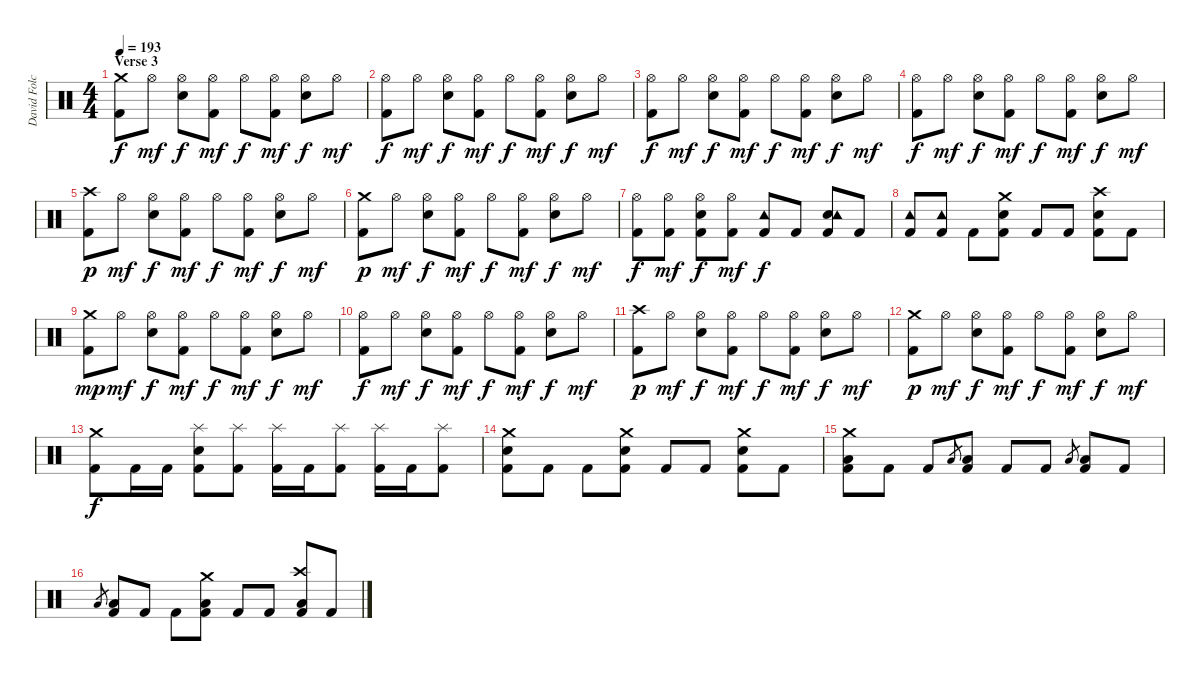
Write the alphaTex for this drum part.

\track ("David Folchitto" "David Folc") {instrument percussion}
\staff {score}
\articulation defaults
\ts (4 4)
\section ("" "Verse 3")
\tempo 193
\clef neutral
\ks c
("Crash medium (hit)" "Kick (hit) 2").8{dy f} "Hi-Hat (open)".8{dy mf} ("Hi-Hat (open)" "Snare (hit) 2").8{dy f} ("Hi-Hat (open)" "Kick (hit) 2").8{dy mf} "Hi-Hat (open)".8{dy f} ("Hi-Hat (open)" "Kick (hit) 2").8{dy mf} ("Hi-Hat (open)" "Snare (hit) 2").8{dy f} "Hi-Hat (open)".8{dy mf} |
("Hi-Hat (open)" "Kick (hit) 2").8{dy f} "Hi-Hat (open)".8{dy mf} ("Hi-Hat (open)" "Snare (hit) 2").8{dy f} ("Hi-Hat (open)" "Kick (hit) 2").8{dy mf} "Hi-Hat (open)".8{dy f} ("Hi-Hat (open)" "Kick (hit) 2").8{dy mf} ("Hi-Hat (open)" "Snare (hit) 2").8{dy f} "Hi-Hat (open)".8{dy mf} |
("Hi-Hat (open)" "Kick (hit) 2").8{dy f} "Hi-Hat (open)".8{dy mf} ("Hi-Hat (open)" "Snare (hit) 2").8{dy f} ("Hi-Hat (open)" "Kick (hit) 2").8{dy mf} "Hi-Hat (open)".8{dy f} ("Hi-Hat (open)" "Kick (hit) 2").8{dy mf} ("Hi-Hat (open)" "Snare (hit) 2").8{dy f} "Hi-Hat (open)".8{dy mf} |
("Hi-Hat (open)" "Kick (hit) 2").8{dy f} "Hi-Hat (open)".8{dy mf} ("Hi-Hat (open)" "Snare (hit) 2").8{dy f} ("Hi-Hat (open)" "Kick (hit) 2").8{dy mf} "Hi-Hat (open)".8{dy f} ("Hi-Hat (open)" "Kick (hit) 2").8{dy mf} ("Hi-Hat (open)" "Snare (hit) 2").8{dy f} "Hi-Hat (open)".8{dy mf} |
("Crash high (hit)" "Kick (hit) 2").8{dy p} "Hi-Hat (open)".8{dy mf} ("Hi-Hat (open)" "Snare (hit) 2").8{dy f} ("Hi-Hat (open)" "Kick (hit) 2").8{dy mf} "Hi-Hat (open)".8{dy f} ("Hi-Hat (open)" "Kick (hit) 2").8{dy mf} ("Hi-Hat (open)" "Snare (hit) 2").8{dy f} "Hi-Hat (open)".8{dy mf} |
("Crash medium (hit)" "Kick (hit) 2").8{dy p} "Hi-Hat (open)".8{dy mf} ("Hi-Hat (open)" "Snare (hit) 2").8{dy f} ("Hi-Hat (open)" "Kick (hit) 2").8{dy mf} "Hi-Hat (open)".8{dy f} ("Hi-Hat (open)" "Kick (hit) 2").8{dy mf} ("Hi-Hat (open)" "Snare (hit) 2").8{dy f} "Hi-Hat (open)".8{dy mf} |
("Hi-Hat (open)" "Kick (hit) 2").8{dy f} ("Hi-Hat (open)" "Kick (hit) 2").8{dy mf} ("Hi-Hat (open)" "Snare (hit) 2" "Kick (hit) 2").8{dy f} ("Hi-Hat (open)" "Kick (hit) 2").8{dy mf} ("Tambourine (hit)" "Kick (hit) 2").8{dy f} "Kick (hit) 2".8 ("Snare (hit) 2" "Tambourine (hit)" "Kick (hit) 2").8 "Kick (hit) 2".8 |
("Tambourine (hit)" "Kick (hit) 2").8 ("Tambourine (hit)" "Kick (hit) 2").8 "Kick (hit) 2".8 ("Crash medium (hit)" "Snare (hit) 2" "Kick (hit) 2").8 "Kick (hit) 2".8 "Kick (hit) 2".8 ("Crash high (hit)" "Snare (hit) 2" "Kick (hit) 2").8 "Kick (hit) 2".8 |
("Crash medium (hit)" "Kick (hit) 2").8{dy mp} "Hi-Hat (open)".8{dy mf} ("Hi-Hat (open)" "Snare (hit) 2").8{dy f} ("Hi-Hat (open)" "Kick (hit) 2").8{dy mf} "Hi-Hat (open)".8{dy f} ("Hi-Hat (open)" "Kick (hit) 2").8{dy mf} ("Hi-Hat (open)" "Snare (hit) 2").8{dy f} "Hi-Hat (open)".8{dy mf} |
("Hi-Hat (open)" "Kick (hit) 2").8{dy f} "Hi-Hat (open)".8{dy mf} ("Hi-Hat (open)" "Snare (hit) 2").8{dy f} ("Hi-Hat (open)" "Kick (hit) 2").8{dy mf} "Hi-Hat (open)".8{dy f} ("Hi-Hat (open)" "Kick (hit) 2").8{dy mf} ("Hi-Hat (open)" "Snare (hit) 2").8{dy f} "Hi-Hat (open)".8{dy mf} |
("Crash high (hit)" "Kick (hit) 2").8{dy p} "Hi-Hat (open)".8{dy mf} ("Hi-Hat (open)" "Snare (hit) 2").8{dy f} ("Hi-Hat (open)" "Kick (hit) 2").8{dy mf} "Hi-Hat (open)".8{dy f} ("Hi-Hat (open)" "Kick (hit) 2").8{dy mf} ("Hi-Hat (open)" "Snare (hit) 2").8{dy f} "Hi-Hat (open)".8{dy mf} |
("Crash medium (hit)" "Kick (hit) 2").8{dy p} "Hi-Hat (open)".8{dy mf} ("Hi-Hat (open)" "Snare (hit) 2").8{dy f} ("Hi-Hat (open)" "Kick (hit) 2").8{dy mf} "Hi-Hat (open)".8{dy f} ("Hi-Hat (open)" "Kick (hit) 2").8{dy mf} ("Hi-Hat (open)" "Snare (hit) 2").8{dy f} "Hi-Hat (open)".8{dy mf} |
("Crash medium (hit)" "Kick (hit) 2").8{dy f} "Kick (hit) 2".16 "Kick (hit) 2".16 ("Snare (hit) 2" "Splash (hit)" "Kick (hit) 2").8 ("Splash (hit)" "Kick (hit) 2").8 ("Splash (hit)" "Kick (hit) 2").16 "Kick (hit) 2".16 ("Splash (hit)" "Kick (hit) 2").8 ("Splash (hit)" "Kick (hit) 2").16 "Kick (hit) 2".16 ("Splash (hit)" "Kick (hit) 2").8 |
("Crash medium (hit)" "Snare (hit) 2" "Kick (hit) 2").8 "Kick (hit) 2".8 "Kick (hit) 2".8 ("Crash medium (hit)" "Snare (hit) 2" "Kick (hit) 2").8 "Kick (hit) 2".8 "Kick (hit) 2".8 ("Crash medium (hit)" "Snare (hit) 2" "Kick (hit) 2").8 "Kick (hit) 2".8 |
("Crash medium (hit)" "Low Tom (hit)" "Kick (hit) 2").8 "Kick (hit) 2".8 "Kick (hit) 2".8 "Low Tom (hit)".8{gr} ("Low Tom (hit)" "Kick (hit) 2").8 "Kick (hit) 2".8 "Kick (hit) 2".8 "Low Tom (hit)".8{gr} ("Low Tom (hit)" "Kick (hit) 2").8 "Kick (hit) 2".8 |
"Low Tom (hit)".8{gr} ("Low Tom (hit)" "Kick (hit) 2").8 "Kick (hit) 2".8 "Kick (hit) 2".8 ("Crash medium (hit)" "Low Tom (hit)" "Kick (hit) 2").8 "Kick (hit) 2".8 "Kick (hit) 2".8 ("Crash high (hit)" "Low Tom (hit)" "Kick (hit) 2").8 "Kick (hit) 2".8
